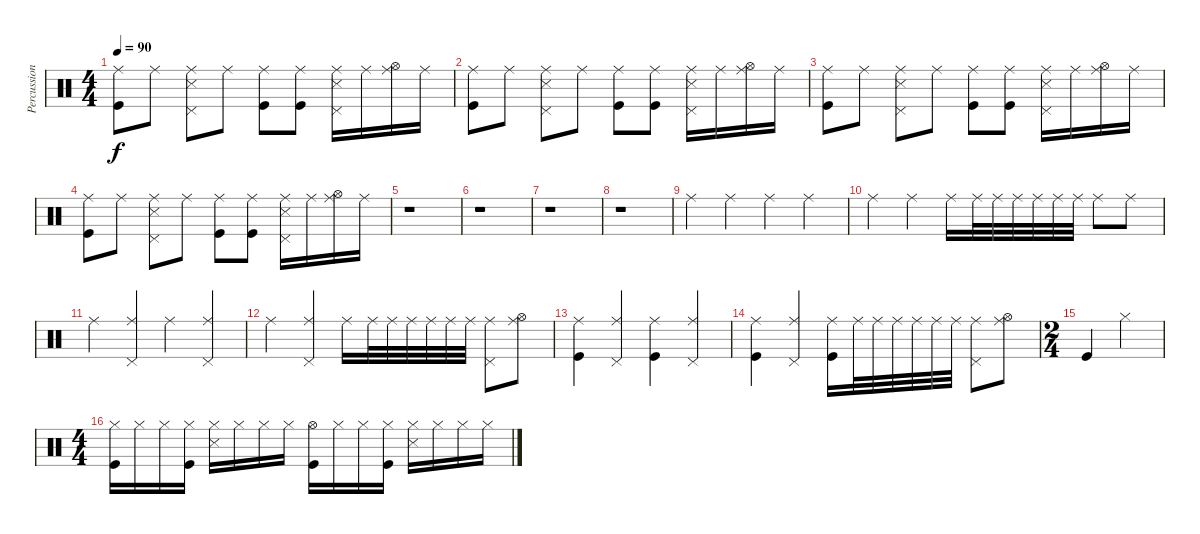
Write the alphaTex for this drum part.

\track ("Percussion" "Percussion") {instrument percussion}
\staff {score}
\articulation defaults
\ts (4 4)
\tempo 90
\clef neutral
\ks c
("Ride (middle)" "Kick (hit)").8{dy f} "Ride (middle)".8 ("Ride (middle)" "Pedal Hi-Hat (hit)" "Snare (side stick) 3").8 "Ride (middle)".8 ("Ride (middle)" "Kick (hit)").8 ("Ride (middle)" "Kick (hit)").8 ("Ride (middle)" "Pedal Hi-Hat (hit)" "Snare (side stick) 3").16 "Ride (middle)".16 ("Ride (middle)" "Hi-Hat (open)").16 "Ride (middle)".16 |
("Ride (middle)" "Kick (hit)").8 "Ride (middle)".8 ("Ride (middle)" "Pedal Hi-Hat (hit)" "Snare (side stick) 3").8 "Ride (middle)".8 ("Ride (middle)" "Kick (hit)").8 ("Ride (middle)" "Kick (hit)").8 ("Ride (middle)" "Pedal Hi-Hat (hit)" "Snare (side stick) 3").16 "Ride (middle)".16 ("Ride (middle)" "Hi-Hat (open)").16 "Ride (middle)".16 |
("Ride (middle)" "Kick (hit)").8 "Ride (middle)".8 ("Ride (middle)" "Pedal Hi-Hat (hit)" "Snare (side stick) 3").8 "Ride (middle)".8 ("Ride (middle)" "Kick (hit)").8 ("Ride (middle)" "Kick (hit)").8 ("Ride (middle)" "Pedal Hi-Hat (hit)" "Snare (side stick) 3").16 "Ride (middle)".16 ("Ride (middle)" "Hi-Hat (open)").16 "Ride (middle)".16 |
("Ride (middle)" "Kick (hit)").8 "Ride (middle)".8 ("Ride (middle)" "Pedal Hi-Hat (hit)" "Snare (side stick) 3").8 "Ride (middle)".8 ("Ride (middle)" "Kick (hit)").8 ("Ride (middle)" "Kick (hit)").8 ("Ride (middle)" "Pedal Hi-Hat (hit)" "Snare (side stick) 3").16 "Ride (middle)".16 ("Ride (middle)" "Hi-Hat (open)").16 "Ride (middle)".16 |
r.1 |
r.1 |
r.1 |
r.1 |
"Ride (middle)".4 "Ride (middle)".4 "Ride (middle)".4 "Ride (middle)".4 |
"Ride (middle)".4 "Ride (middle)".4 "Ride (middle)".16 "Ride (middle)".32 "Ride (middle)".32 "Ride (middle)".32 "Ride (middle)".32 "Ride (middle)".32 "Ride (middle)".32 "Ride (middle)".8 "Ride (middle)".8 |
"Ride (middle)".4 ("Ride (middle)" "Pedal Hi-Hat (hit)").4 "Ride (middle)".4 ("Ride (middle)" "Pedal Hi-Hat (hit)").4 |
"Ride (middle)".4 ("Ride (middle)" "Pedal Hi-Hat (hit)").4 "Ride (middle)".16 "Ride (middle)".32 "Ride (middle)".32 "Ride (middle)".32 "Ride (middle)".32 "Ride (middle)".32 "Ride (middle)".32 ("Ride (middle)" "Pedal Hi-Hat (hit)").8 ("Ride (middle)" "Hi-Hat (open)").8 |
("Ride (middle)" "Kick (hit)").4 ("Ride (middle)" "Pedal Hi-Hat (hit)").4 ("Ride (middle)" "Kick (hit)").4 ("Ride (middle)" "Pedal Hi-Hat (hit)").4 |
("Ride (middle)" "Kick (hit)").4 ("Ride (middle)" "Pedal Hi-Hat (hit)").4 ("Ride (middle)" "Kick (hit)").16 "Ride (middle)".32 "Ride (middle)".32 "Ride (middle)".32 "Ride (middle)".32 "Ride (middle)".32 "Ride (middle)".32 ("Ride (middle)" "Pedal Hi-Hat (hit)").8 ("Ride (middle)" "Hi-Hat (open)").8 |
\ts (2 4)
"Kick (hit)".4 "Hi-Hat (closed)".4 |
\ts (4 4)
("Hi-Hat (closed)" "Kick (hit)").16 "Hi-Hat (closed)".16 "Hi-Hat (closed)".16 ("Hi-Hat (closed)" "Kick (hit)").16 ("Hi-Hat (closed)" "Snare (side stick) 3").16 "Hi-Hat (closed)".16 "Hi-Hat (closed)".16 "Hi-Hat (closed)".16 ("Hi-Hat (open)" "Kick (hit)").16 "Hi-Hat (closed)".16 "Hi-Hat (closed)".16 ("Hi-Hat (closed)" "Kick (hit)").16 ("Hi-Hat (closed)" "Snare (side stick) 3").16 "Hi-Hat (closed)".16 "Hi-Hat (closed)".16 "Hi-Hat (closed)".16
